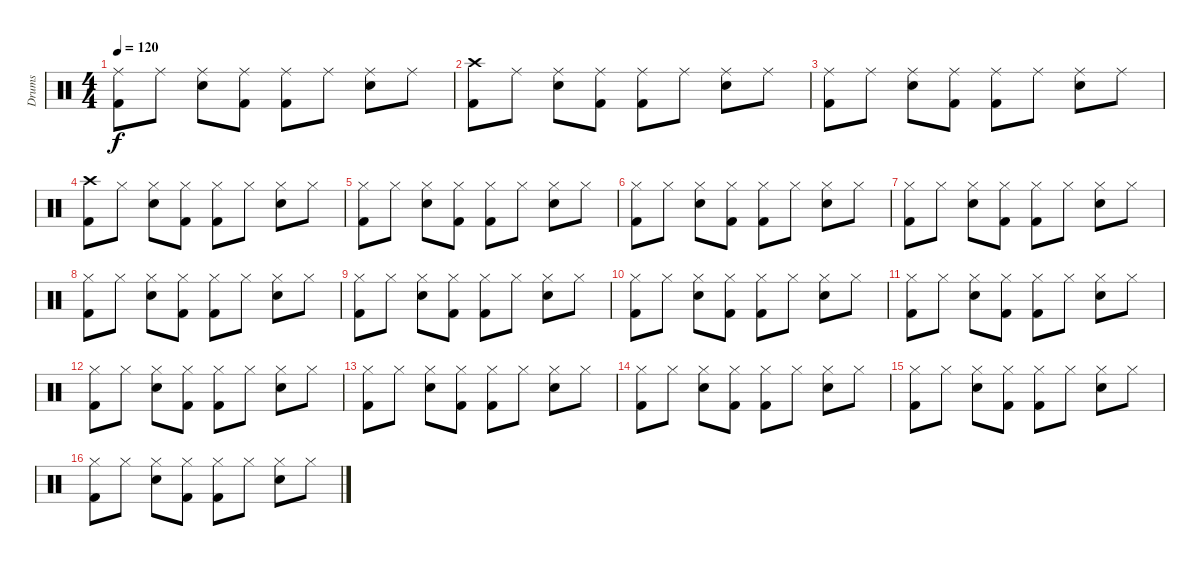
\track ("Drums" "Drums") {instrument percussion}
\staff {score}
\articulation defaults
\ts (4 4)
\tempo 120
\clef neutral
\ks c
("Ride (middle)" "Kick (hit) 2").8{dy f} "Ride (middle)".8 ("Ride (middle)" "Snare (hit) 2").8 ("Ride (middle)" "Kick (hit) 2").8 ("Ride (middle)" "Kick (hit) 2").8 "Ride (middle)".8 ("Ride (middle)" "Snare (hit) 2").8 "Ride (middle)".8 |
("Crash high (hit)" "Kick (hit) 2").8 "Ride (middle)".8 ("Ride (middle)" "Snare (hit) 2").8 ("Ride (middle)" "Kick (hit) 2").8 ("Ride (middle)" "Kick (hit) 2").8 "Ride (middle)".8 ("Ride (middle)" "Snare (hit) 2").8 "Ride (middle)".8 |
("Ride (middle)" "Kick (hit) 2").8 "Ride (middle)".8 ("Ride (middle)" "Snare (hit) 2").8 ("Ride (middle)" "Kick (hit) 2").8 ("Ride (middle)" "Kick (hit) 2").8 "Ride (middle)".8 ("Ride (middle)" "Snare (hit) 2").8 "Ride (middle)".8 |
("Crash high (hit)" "Kick (hit) 2").8 "Hi-Hat (closed)".8 ("Hi-Hat (closed)" "Snare (hit) 2").8 ("Hi-Hat (closed)" "Kick (hit) 2").8 ("Hi-Hat (closed)" "Kick (hit) 2").8 "Hi-Hat (closed)".8 ("Hi-Hat (closed)" "Snare (hit) 2").8 "Hi-Hat (closed)".8 |
("Hi-Hat (closed)" "Kick (hit) 2").8 "Hi-Hat (closed)".8 ("Hi-Hat (closed)" "Snare (hit) 2").8 ("Hi-Hat (closed)" "Kick (hit) 2").8 ("Hi-Hat (closed)" "Kick (hit) 2").8 "Hi-Hat (closed)".8 ("Hi-Hat (closed)" "Snare (hit) 2").8 "Hi-Hat (closed)".8 |
("Hi-Hat (closed)" "Kick (hit) 2").8 "Hi-Hat (closed)".8 ("Hi-Hat (closed)" "Snare (hit) 2").8 ("Hi-Hat (closed)" "Kick (hit) 2").8 ("Hi-Hat (closed)" "Kick (hit) 2").8 "Hi-Hat (closed)".8 ("Hi-Hat (closed)" "Snare (hit) 2").8 "Hi-Hat (closed)".8 |
("Hi-Hat (closed)" "Kick (hit) 2").8 "Hi-Hat (closed)".8 ("Hi-Hat (closed)" "Snare (hit) 2").8 ("Hi-Hat (closed)" "Kick (hit) 2").8 ("Hi-Hat (closed)" "Kick (hit) 2").8 "Hi-Hat (closed)".8 ("Hi-Hat (closed)" "Snare (hit) 2").8 "Hi-Hat (closed)".8 |
("Hi-Hat (closed)" "Kick (hit) 2").8 "Hi-Hat (closed)".8 ("Hi-Hat (closed)" "Snare (hit) 2").8 ("Hi-Hat (closed)" "Kick (hit) 2").8 ("Hi-Hat (closed)" "Kick (hit) 2").8 "Hi-Hat (closed)".8 ("Hi-Hat (closed)" "Snare (hit) 2").8 "Hi-Hat (closed)".8 |
("Hi-Hat (closed)" "Kick (hit) 2").8 "Hi-Hat (closed)".8 ("Hi-Hat (closed)" "Snare (hit) 2").8 ("Hi-Hat (closed)" "Kick (hit) 2").8 ("Hi-Hat (closed)" "Kick (hit) 2").8 "Hi-Hat (closed)".8 ("Hi-Hat (closed)" "Snare (hit) 2").8 "Hi-Hat (closed)".8 |
("Hi-Hat (closed)" "Kick (hit) 2").8 "Hi-Hat (closed)".8 ("Hi-Hat (closed)" "Snare (hit) 2").8 ("Hi-Hat (closed)" "Kick (hit) 2").8 ("Hi-Hat (closed)" "Kick (hit) 2").8 "Hi-Hat (closed)".8 ("Hi-Hat (closed)" "Snare (hit) 2").8 "Hi-Hat (closed)".8 |
("Hi-Hat (closed)" "Kick (hit) 2").8 "Hi-Hat (closed)".8 ("Hi-Hat (closed)" "Snare (hit) 2").8 ("Hi-Hat (closed)" "Kick (hit) 2").8 ("Hi-Hat (closed)" "Kick (hit) 2").8 "Hi-Hat (closed)".8 ("Hi-Hat (closed)" "Snare (hit) 2").8 "Hi-Hat (closed)".8 |
("Hi-Hat (closed)" "Kick (hit) 2").8 "Hi-Hat (closed)".8 ("Hi-Hat (closed)" "Snare (hit) 2").8 ("Hi-Hat (closed)" "Kick (hit) 2").8 ("Hi-Hat (closed)" "Kick (hit) 2").8 "Hi-Hat (closed)".8 ("Hi-Hat (closed)" "Snare (hit) 2").8 "Hi-Hat (closed)".8 |
("Hi-Hat (closed)" "Kick (hit) 2").8 "Hi-Hat (closed)".8 ("Hi-Hat (closed)" "Snare (hit) 2").8 ("Hi-Hat (closed)" "Kick (hit) 2").8 ("Hi-Hat (closed)" "Kick (hit) 2").8 "Hi-Hat (closed)".8 ("Hi-Hat (closed)" "Snare (hit) 2").8 "Hi-Hat (closed)".8 |
("Hi-Hat (closed)" "Kick (hit) 2").8 "Hi-Hat (closed)".8 ("Hi-Hat (closed)" "Snare (hit) 2").8 ("Hi-Hat (closed)" "Kick (hit) 2").8 ("Hi-Hat (closed)" "Kick (hit) 2").8 "Hi-Hat (closed)".8 ("Hi-Hat (closed)" "Snare (hit) 2").8 "Hi-Hat (closed)".8 |
("Hi-Hat (closed)" "Kick (hit) 2").8 "Hi-Hat (closed)".8 ("Hi-Hat (closed)" "Snare (hit) 2").8 ("Hi-Hat (closed)" "Kick (hit) 2").8 ("Hi-Hat (closed)" "Kick (hit) 2").8 "Hi-Hat (closed)".8 ("Hi-Hat (closed)" "Snare (hit) 2").8 "Hi-Hat (closed)".8 |
("Hi-Hat (closed)" "Kick (hit) 2").8 "Hi-Hat (closed)".8 ("Hi-Hat (closed)" "Snare (hit) 2").8 ("Hi-Hat (closed)" "Kick (hit) 2").8 ("Hi-Hat (closed)" "Kick (hit) 2").8 "Hi-Hat (closed)".8 ("Hi-Hat (closed)" "Snare (hit) 2").8 "Hi-Hat (closed)".8
